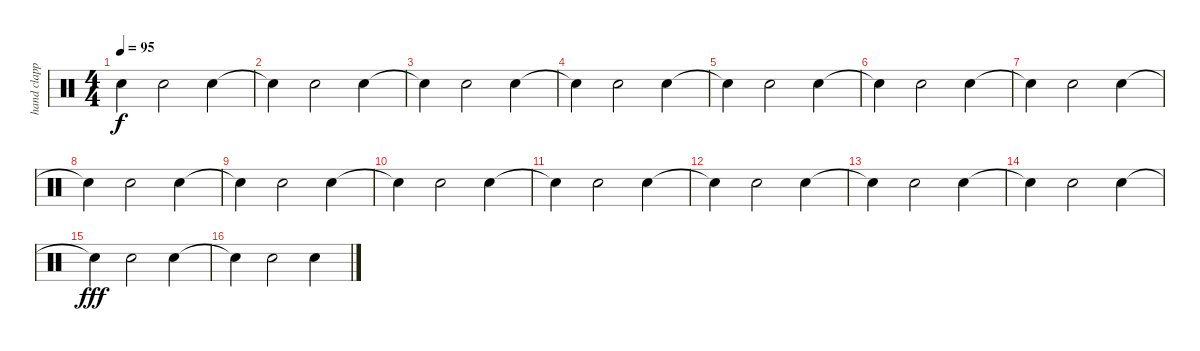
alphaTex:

\track ("hand clapping" "hand clapp") {instrument percussion}
\staff {score}
\articulation defaults
\ts (4 4)
\tempo 95
\clef neutral
\ks c "Snare (hit)"{t}.4{dy f} "Hand Clap (hit)".2 "Hand Clap (hit)".4
|
"Snare (hit)"{t}.4 "Hand Clap (hit)".2 "Hand Clap (hit)".4 |
"Snare (hit)"{t}.4 "Hand Clap (hit)".2 "Hand Clap (hit)".4 |
"Snare (hit)"{t}.4 "Hand Clap (hit)".2 "Hand Clap (hit)".4 |
"Snare (hit)"{t}.4 "Hand Clap (hit)".2 "Hand Clap (hit)".4 |
"Snare (hit)"{t}.4 "Hand Clap (hit)".2 "Hand Clap (hit)".4 |
"Snare (hit)"{t}.4 "Hand Clap (hit)".2 "Hand Clap (hit)".4 |
"Snare (hit)"{t}.4 "Hand Clap (hit)".2 "Hand Clap (hit)".4 |
"Snare (hit)"{t}.4 "Hand Clap (hit)".2 "Hand Clap (hit)".4 |
"Snare (hit)"{t}.4 "Hand Clap (hit)".2 "Hand Clap (hit)".4 |
"Snare (hit)"{t}.4 "Hand Clap (hit)".2 "Hand Clap (hit)".4 |
"Snare (hit)"{t}.4 "Hand Clap (hit)".2 "Hand Clap (hit)".4 |
"Snare (hit)"{t}.4 "Hand Clap (hit)".2 "Hand Clap (hit)".4 |
"Snare (hit)"{t}.4 "Hand Clap (hit)".2 "Hand Clap (hit)".4 |
"Snare (hit)"{t}.4{dy fff} "Hand Clap (hit)".2 "Hand Clap (hit)".4 |
"Snare (hit)"{t}.4 "Hand Clap (hit)".2 "Hand Clap (hit)".4
